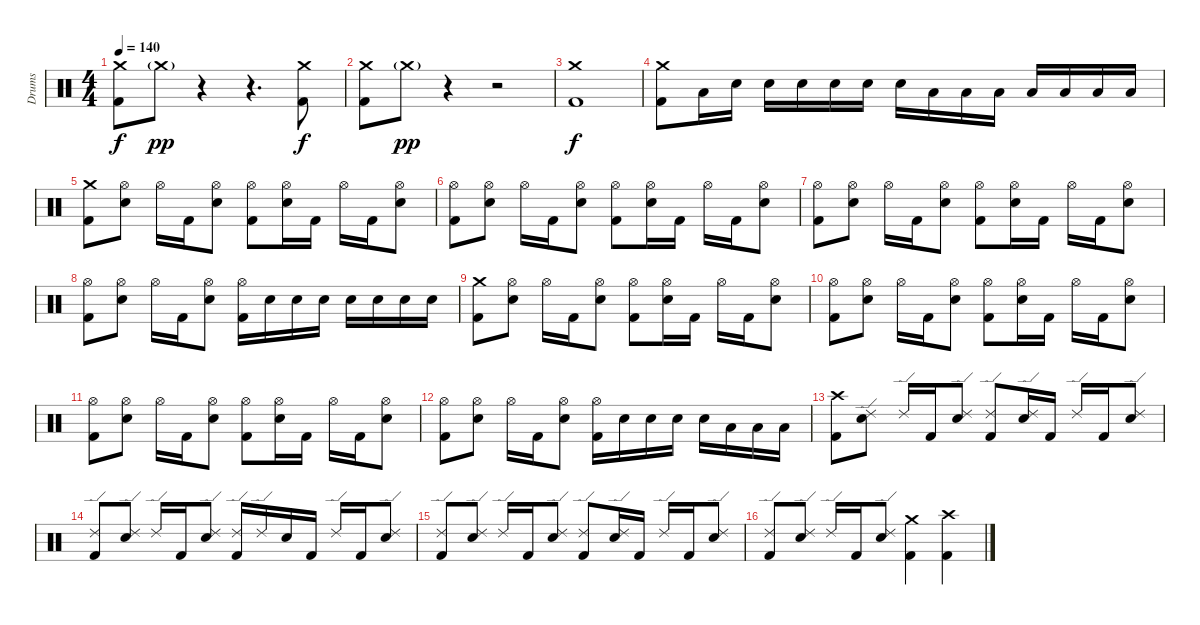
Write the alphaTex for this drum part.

\track ("Drums" "Drums") {instrument percussion}
\staff {score}
\articulation defaults
\ts (4 4)
\tempo 140
\clef neutral
\ks c
("Crash medium (hit)" "Kick (hit) 2").8{dy f} "Crash medium (hit)"{g}.8{dy pp} r.4 r.4{d} ("Crash medium (hit)" "Kick (hit) 2").8{dy f} |
("Crash medium (hit)" "Kick (hit) 2").8 "Crash medium (hit)"{g}.8{dy pp} r.4 r.2 |
("Crash medium (hit)" "Kick (hit) 2").1{dy f} |
("Crash medium (hit)" "Kick (hit) 2").8 "Low Tom (hit)".16 "Electric Snare (hit)".16 "Electric Snare (hit)".16 "Electric Snare (hit)".16 "Electric Snare (hit)".16 "Electric Snare (hit)".16 "Electric Snare (hit)".16 "Low Tom (hit)".16 "Low Tom (hit)".16 "Low Tom (hit)".16 "Low Floor Tom (hit)".16 "Low Floor Tom (hit)".16 "Low Floor Tom (hit)".16 "Low Floor Tom (hit)".16 |
("Crash medium (hit)" "Kick (hit) 2").8 ("Hi-Hat (open)" "Electric Snare (hit)").8 "Hi-Hat (open)".16 "Kick (hit) 2".16 ("Hi-Hat (open)" "Electric Snare (hit)").8 ("Hi-Hat (open)" "Kick (hit) 2").8 ("Hi-Hat (open)" "Electric Snare (hit)").16 "Kick (hit) 2".16 "Hi-Hat (open)".16 "Kick (hit) 2".16 ("Hi-Hat (open)" "Electric Snare (hit)").8 |
("Hi-Hat (open)" "Kick (hit) 2").8 ("Hi-Hat (open)" "Electric Snare (hit)").8 "Hi-Hat (open)".16 "Kick (hit) 2".16 ("Hi-Hat (open)" "Electric Snare (hit)").8 ("Hi-Hat (open)" "Kick (hit) 2").8 ("Hi-Hat (open)" "Electric Snare (hit)").16 "Kick (hit) 2".16 "Hi-Hat (open)".16 "Kick (hit) 2".16 ("Hi-Hat (open)" "Electric Snare (hit)").8 |
("Hi-Hat (open)" "Kick (hit) 2").8 ("Hi-Hat (open)" "Electric Snare (hit)").8 "Hi-Hat (open)".16 "Kick (hit) 2".16 ("Hi-Hat (open)" "Electric Snare (hit)").8 ("Hi-Hat (open)" "Kick (hit) 2").8 ("Hi-Hat (open)" "Electric Snare (hit)").16 "Kick (hit) 2".16 "Hi-Hat (open)".16 "Kick (hit) 2".16 ("Hi-Hat (open)" "Electric Snare (hit)").8 |
("Hi-Hat (open)" "Kick (hit) 2").8 ("Hi-Hat (open)" "Electric Snare (hit)").8 "Hi-Hat (open)".16 "Kick (hit) 2".16 ("Hi-Hat (open)" "Electric Snare (hit)").8 ("Hi-Hat (open)" "Kick (hit) 2").16 "Electric Snare (hit)".16 "Electric Snare (hit)".16 "Electric Snare (hit)".16 "Electric Snare (hit)".16 "Electric Snare (hit)".16 "Electric Snare (hit)".16 "Electric Snare (hit)".16 |
("Crash medium (hit)" "Kick (hit) 2").8 ("Hi-Hat (open)" "Electric Snare (hit)").8 "Hi-Hat (open)".16 "Kick (hit) 2".16 ("Hi-Hat (open)" "Electric Snare (hit)").8 ("Hi-Hat (open)" "Kick (hit) 2").8 ("Hi-Hat (open)" "Electric Snare (hit)").16 "Kick (hit) 2".16 "Hi-Hat (open)".16 "Kick (hit) 2".16 ("Hi-Hat (open)" "Electric Snare (hit)").8 |
("Hi-Hat (open)" "Kick (hit) 2").8 ("Hi-Hat (open)" "Electric Snare (hit)").8 "Hi-Hat (open)".16 "Kick (hit) 2".16 ("Hi-Hat (open)" "Electric Snare (hit)").8 ("Hi-Hat (open)" "Kick (hit) 2").8 ("Hi-Hat (open)" "Electric Snare (hit)").16 "Kick (hit) 2".16 "Hi-Hat (open)".16 "Kick (hit) 2".16 ("Hi-Hat (open)" "Electric Snare (hit)").8 |
("Hi-Hat (open)" "Kick (hit) 2").8 ("Hi-Hat (open)" "Electric Snare (hit)").8 "Hi-Hat (open)".16 "Kick (hit) 2".16 ("Hi-Hat (open)" "Electric Snare (hit)").8 ("Hi-Hat (open)" "Kick (hit) 2").8 ("Hi-Hat (open)" "Electric Snare (hit)").16 "Kick (hit) 2".16 "Hi-Hat (open)".16 "Kick (hit) 2".16 ("Hi-Hat (open)" "Electric Snare (hit)").8 |
("Hi-Hat (open)" "Kick (hit) 2").8 ("Hi-Hat (open)" "Electric Snare (hit)").8 "Hi-Hat (open)".16 "Kick (hit) 2".16 ("Hi-Hat (open)" "Electric Snare (hit)").8 ("Hi-Hat (open)" "Kick (hit) 2").16 "Electric Snare (hit)".16 "Electric Snare (hit)".16 "Electric Snare (hit)".16 "Electric Snare (hit)".16 "Low Floor Tom (hit)".16 "Low Floor Tom (hit)".16 "Low Floor Tom (hit)".16 |
("Crash high (hit)" "Kick (hit) 2").8 ("Ride (edge) 2" "Electric Snare (hit)").8 "Ride (edge) 2".16 "Kick (hit) 2".16 ("Ride (edge) 2" "Electric Snare (hit)").8 ("Ride (edge) 2" "Kick (hit) 2").8 ("Ride (edge) 2" "Electric Snare (hit)").16 "Kick (hit) 2".16 "Ride (edge) 2".16 "Kick (hit) 2".16 ("Ride (edge) 2" "Electric Snare (hit)").8 |
("Ride (edge) 2" "Kick (hit) 2").8 ("Ride (edge) 2" "Electric Snare (hit)").8 "Ride (edge) 2".16 "Kick (hit) 2".16 ("Ride (edge) 2" "Electric Snare (hit)").8 ("Ride (edge) 2" "Kick (hit) 2").16 "Ride (edge) 2".16 "Electric Snare (hit)".16 "Kick (hit) 2".16 "Ride (edge) 2".16 "Kick (hit) 2".16 ("Ride (edge) 2" "Electric Snare (hit)").8 |
("Ride (edge) 2" "Kick (hit) 2").8 ("Ride (edge) 2" "Electric Snare (hit)").8 "Ride (edge) 2".16 "Kick (hit) 2".16 ("Ride (edge) 2" "Electric Snare (hit)").8 ("Ride (edge) 2" "Kick (hit) 2").8 ("Ride (edge) 2" "Electric Snare (hit)").16 "Kick (hit) 2".16 "Ride (edge) 2".16 "Kick (hit) 2".16 ("Ride (edge) 2" "Electric Snare (hit)").8 |
("Ride (edge) 2" "Kick (hit) 2").8 ("Ride (edge) 2" "Electric Snare (hit)").8 "Ride (edge) 2".16 "Kick (hit) 2".16 ("Ride (edge) 2" "Electric Snare (hit)").8 ("Crash medium (hit)" "Kick (hit) 2").4 ("Crash high (hit)" "Kick (hit) 2").4
